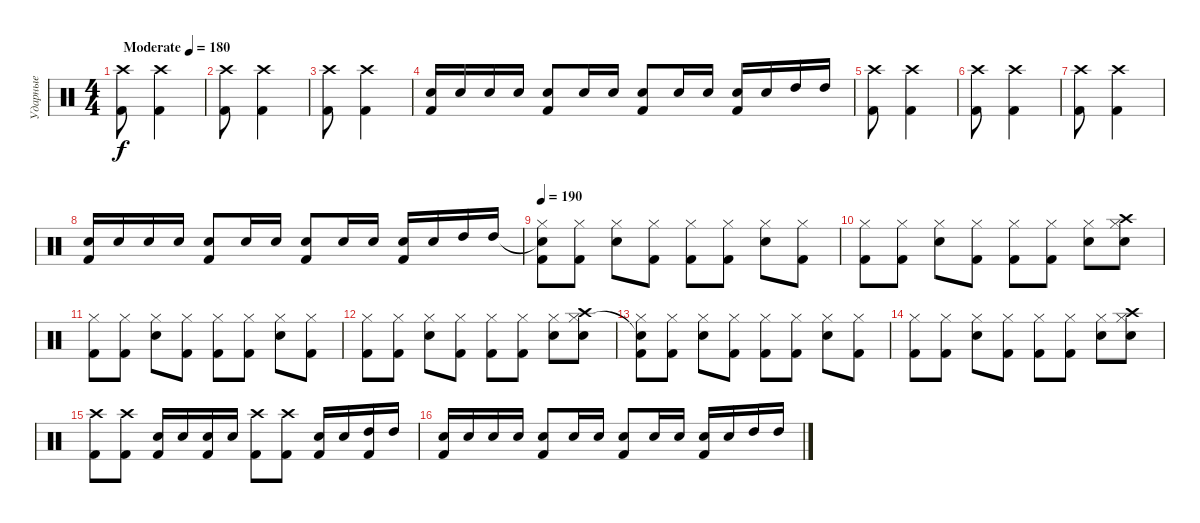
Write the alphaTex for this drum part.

\track ("Ударные" "Ударные") {instrument percussion}
\staff {score}
\articulation defaults
\ts (4 4)
\tempo (180 "Moderate")
\clef neutral
\ks c
("Crash high (hit)" "Kick (hit) 2").8{dy f} ("Crash high (hit)" "Kick (hit) 2").4 |
("Crash high (hit)" "Kick (hit) 2").8 ("Crash high (hit)" "Kick (hit) 2").4 |
("Crash high (hit)" "Kick (hit) 2").8 ("Crash high (hit)" "Kick (hit) 2").4 |
("Electric Snare (hit)" "Kick (hit) 2").16 "Electric Snare (hit)".16 "Electric Snare (hit)".16 "Electric Snare (hit)".16 ("Electric Snare (hit)" "Kick (hit) 2").8 "Electric Snare (hit)".16 "Electric Snare (hit)".16 ("Electric Snare (hit)" "Kick (hit) 2").8 "Electric Snare (hit)".16 "Electric Snare (hit)".16 ("Electric Snare (hit)" "Kick (hit) 2").16 "Electric Snare (hit)".16 "High Tom (hit)".16 "High Tom (hit)".16 |
("Crash high (hit)" "Kick (hit) 2").8 ("Crash high (hit)" "Kick (hit) 2").4 |
("Crash high (hit)" "Kick (hit) 2").8 ("Crash high (hit)" "Kick (hit) 2").4 |
("Crash high (hit)" "Kick (hit) 2").8 ("Crash high (hit)" "Kick (hit) 2").4 |
("Electric Snare (hit)" "Kick (hit) 2").16 "Electric Snare (hit)".16 "Electric Snare (hit)".16 "Electric Snare (hit)".16 ("Electric Snare (hit)" "Kick (hit) 2").8 "Electric Snare (hit)".16 "Electric Snare (hit)".16 ("Electric Snare (hit)" "Kick (hit) 2").8 "Electric Snare (hit)".16 "Electric Snare (hit)".16 ("Electric Snare (hit)" "Kick (hit) 2").16 "Electric Snare (hit)".16 "High Tom (hit)".16 "High Tom (hit)".16 |
\tempo 190
("Snare (hit)"{t} "Hi-Hat (closed)" "Kick (hit) 2").8 ("Hi-Hat (closed)" "Kick (hit) 2").8 ("Hi-Hat (closed)" "Electric Snare (hit)").8 ("Hi-Hat (closed)" "Kick (hit) 2").8 ("Hi-Hat (closed)" "Kick (hit) 2").8 ("Hi-Hat (closed)" "Kick (hit) 2").8 ("Hi-Hat (closed)" "Electric Snare (hit)").8 ("Hi-Hat (closed)" "Kick (hit) 2").8 |
("Hi-Hat (closed)" "Kick (hit) 2").8 ("Hi-Hat (closed)" "Kick (hit) 2").8 ("Hi-Hat (closed)" "Electric Snare (hit)").8 ("Hi-Hat (closed)" "Kick (hit) 2").8 ("Hi-Hat (closed)" "Kick (hit) 2").8 ("Hi-Hat (closed)" "Kick (hit) 2").8 ("Hi-Hat (closed)" "Electric Snare (hit)").8 ("Hi-Hat (closed)" "Crash high (hit)" "Electric Snare (hit)").8 |
("Hi-Hat (closed)" "Kick (hit) 2").8 ("Hi-Hat (closed)" "Kick (hit) 2").8 ("Hi-Hat (closed)" "Electric Snare (hit)").8 ("Hi-Hat (closed)" "Kick (hit) 2").8 ("Hi-Hat (closed)" "Kick (hit) 2").8 ("Hi-Hat (closed)" "Kick (hit) 2").8 ("Hi-Hat (closed)" "Electric Snare (hit)").8 ("Hi-Hat (closed)" "Kick (hit) 2").8 |
("Hi-Hat (closed)" "Kick (hit) 2").8 ("Hi-Hat (closed)" "Kick (hit) 2").8 ("Hi-Hat (closed)" "Electric Snare (hit)").8 ("Hi-Hat (closed)" "Kick (hit) 2").8 ("Hi-Hat (closed)" "Kick (hit) 2").8 ("Hi-Hat (closed)" "Kick (hit) 2").8 ("Hi-Hat (closed)" "Electric Snare (hit)").8 ("Hi-Hat (closed)" "Crash high (hit)" "Electric Snare (hit)").8 |
("Snare (hit)"{t} "Hi-Hat (closed)" "Kick (hit) 2").8 ("Hi-Hat (closed)" "Kick (hit) 2").8 ("Hi-Hat (closed)" "Electric Snare (hit)").8 ("Hi-Hat (closed)" "Kick (hit) 2").8 ("Hi-Hat (closed)" "Kick (hit) 2").8 ("Hi-Hat (closed)" "Kick (hit) 2").8 ("Hi-Hat (closed)" "Electric Snare (hit)").8 ("Hi-Hat (closed)" "Kick (hit) 2").8 |
("Hi-Hat (closed)" "Kick (hit) 2").8 ("Hi-Hat (closed)" "Kick (hit) 2").8 ("Hi-Hat (closed)" "Electric Snare (hit)").8 ("Hi-Hat (closed)" "Kick (hit) 2").8 ("Hi-Hat (closed)" "Kick (hit) 2").8 ("Hi-Hat (closed)" "Kick (hit) 2").8 ("Hi-Hat (closed)" "Electric Snare (hit)").8 ("Hi-Hat (closed)" "Crash high (hit)" "Electric Snare (hit)").8 |
("Crash high (hit)" "Kick (hit) 2").8 ("Crash high (hit)" "Kick (hit) 2").8 ("Electric Snare (hit)" "Kick (hit) 2").16 "Electric Snare (hit)".16 ("Electric Snare (hit)" "Kick (hit) 2").16 "Electric Snare (hit)".16 ("Crash high (hit)" "Kick (hit) 2").8 ("Crash high (hit)" "Kick (hit) 2").8 ("Electric Snare (hit)" "Kick (hit) 2").16 "Electric Snare (hit)".16 ("High Tom (hit)" "Kick (hit) 2").16 "High Tom (hit)".16 |
("Electric Snare (hit)" "Kick (hit) 2").16 "Electric Snare (hit)".16 "Electric Snare (hit)".16 "Electric Snare (hit)".16 ("Electric Snare (hit)" "Kick (hit) 2").8 "Electric Snare (hit)".16 "Electric Snare (hit)".16 ("Electric Snare (hit)" "Kick (hit) 2").8 "Electric Snare (hit)".16 "Electric Snare (hit)".16 ("Electric Snare (hit)" "Kick (hit) 2").16 "Electric Snare (hit)".16 "High Tom (hit)".16 "High Tom (hit)".16
